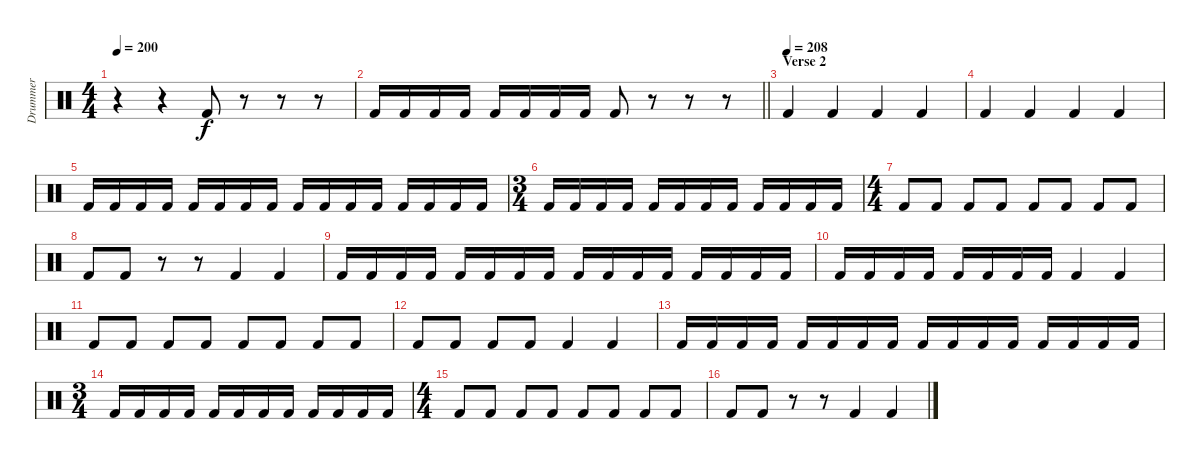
\track ("Drummer" "Drummer") {instrument percussion}
\staff {score}
\articulation defaults
\ts (4 4)
\tempo 200
\clef neutral
\ks c
r.4{dy f} r.4 "Kick (hit) 2".8 r.8 r.8 r.8 |
\barLineRight lightlight "Kick (hit) 2".16 "Kick (hit) 2".16 "Kick (hit) 2".16 "Kick (hit) 2".16 "Kick (hit) 2".16 "Kick (hit) 2".16 "Kick (hit) 2".16 "Kick (hit) 2".16 "Kick (hit) 2".8
r.8 r.8 r.8 |
\section ("" "Verse 2")
\tempo (208)
"Kick (hit) 2".4 "Kick (hit) 2".4 "Kick (hit) 2".4 "Kick (hit) 2".4 |
"Kick (hit) 2".4 "Kick (hit) 2".4 "Kick (hit) 2".4 "Kick (hit) 2".4 |
"Kick (hit) 2".16 "Kick (hit) 2".16 "Kick (hit) 2".16 "Kick (hit) 2".16 "Kick (hit) 2".16 "Kick (hit) 2".16 "Kick (hit) 2".16 "Kick (hit) 2".16 "Kick (hit) 2".16 "Kick (hit) 2".16 "Kick (hit) 2".16 "Kick (hit) 2".16 "Kick (hit) 2".16 "Kick (hit) 2".16 "Kick (hit) 2".16 "Kick (hit) 2".16 |
\ts (3 4)
"Kick (hit) 2".16 "Kick (hit) 2".16 "Kick (hit) 2".16 "Kick (hit) 2".16 "Kick (hit) 2".16 "Kick (hit) 2".16 "Kick (hit) 2".16 "Kick (hit) 2".16 "Kick (hit) 2".16 "Kick (hit) 2".16 "Kick (hit) 2".16 "Kick (hit) 2".16 |
\ts (4 4)
"Kick (hit) 2".8 "Kick (hit) 2".8 "Kick (hit) 2".8 "Kick (hit) 2".8 "Kick (hit) 2".8 "Kick (hit) 2".8 "Kick (hit) 2".8 "Kick (hit) 2".8 |
"Kick (hit) 2".8 "Kick (hit) 2".8 r.8 r.8 "Kick (hit) 2".4 "Kick (hit) 2".4 |
"Kick (hit) 2".16 "Kick (hit) 2".16 "Kick (hit) 2".16 "Kick (hit) 2".16 "Kick (hit) 2".16 "Kick (hit) 2".16 "Kick (hit) 2".16 "Kick (hit) 2".16 "Kick (hit) 2".16 "Kick (hit) 2".16 "Kick (hit) 2".16 "Kick (hit) 2".16 "Kick (hit) 2".16 "Kick (hit) 2".16 "Kick (hit) 2".16 "Kick (hit) 2".16 |
"Kick (hit) 2".16 "Kick (hit) 2".16 "Kick (hit) 2".16 "Kick (hit) 2".16 "Kick (hit) 2".16 "Kick (hit) 2".16 "Kick (hit) 2".16 "Kick (hit) 2".16 "Kick (hit) 2".4 "Kick (hit) 2".4 |
"Kick (hit) 2".8 "Kick (hit) 2".8 "Kick (hit) 2".8 "Kick (hit) 2".8 "Kick (hit) 2".8 "Kick (hit) 2".8 "Kick (hit) 2".8 "Kick (hit) 2".8 |
"Kick (hit) 2".8 "Kick (hit) 2".8 "Kick (hit) 2".8 "Kick (hit) 2".8 "Kick (hit) 2".4 "Kick (hit) 2".4 |
"Kick (hit) 2".16 "Kick (hit) 2".16 "Kick (hit) 2".16 "Kick (hit) 2".16 "Kick (hit) 2".16 "Kick (hit) 2".16 "Kick (hit) 2".16 "Kick (hit) 2".16 "Kick (hit) 2".16 "Kick (hit) 2".16 "Kick (hit) 2".16 "Kick (hit) 2".16 "Kick (hit) 2".16 "Kick (hit) 2".16 "Kick (hit) 2".16 "Kick (hit) 2".16 |
\ts (3 4)
"Kick (hit) 2".16 "Kick (hit) 2".16 "Kick (hit) 2".16 "Kick (hit) 2".16 "Kick (hit) 2".16 "Kick (hit) 2".16 "Kick (hit) 2".16 "Kick (hit) 2".16 "Kick (hit) 2".16 "Kick (hit) 2".16 "Kick (hit) 2".16 "Kick (hit) 2".16 |
\ts (4 4)
"Kick (hit) 2".8 "Kick (hit) 2".8 "Kick (hit) 2".8 "Kick (hit) 2".8 "Kick (hit) 2".8 "Kick (hit) 2".8 "Kick (hit) 2".8 "Kick (hit) 2".8 |
"Kick (hit) 2".8 "Kick (hit) 2".8 r.8 r.8 "Kick (hit) 2".4 "Kick (hit) 2".4
